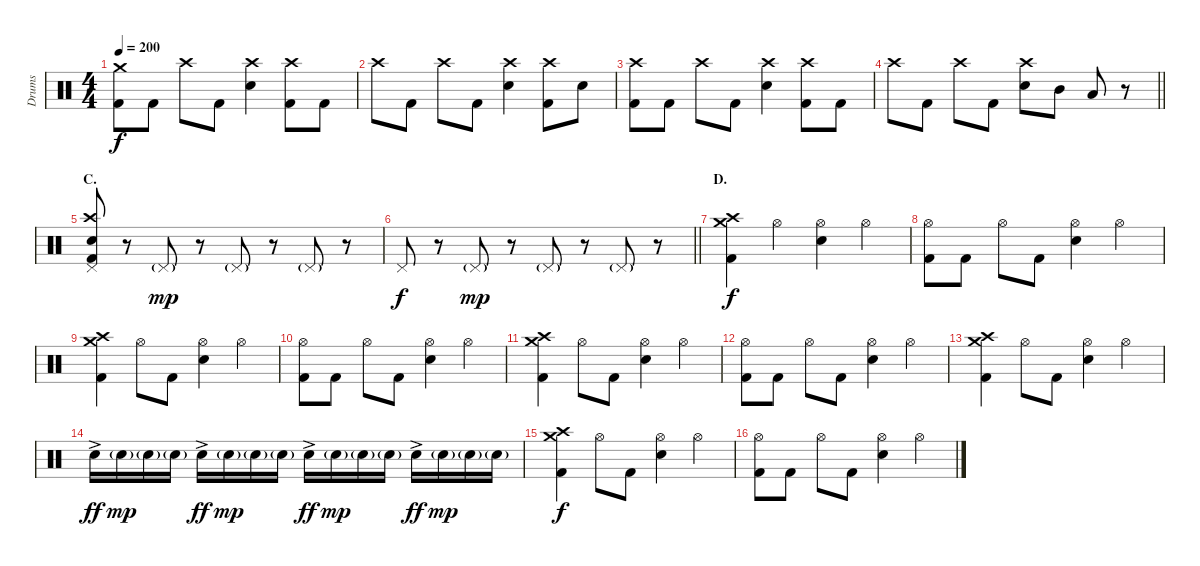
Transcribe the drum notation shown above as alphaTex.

\track ("Drums" "Drums") {instrument percussion}
\staff {score}
\articulation defaults
\ts (4 4)
\tempo 200
\clef neutral
\ks c
("Crash medium (hit)" "Kick (hit) 2").8{dy f} "Kick (hit) 2".8 "Crash high (hit)".8 "Kick (hit) 2".8 ("Crash high (hit)" "Electric Snare (hit)").4 ("Crash high (hit)" "Kick (hit) 2").8 "Kick (hit) 2".8 |
"Crash high (hit)".8 "Kick (hit) 2".8 "Crash high (hit)".8 "Kick (hit) 2".8 ("Crash high (hit)" "Electric Snare (hit)").4 ("Crash high (hit)" "Kick (hit) 2").8 "Electric Snare (hit)".8 |
("Crash high (hit)" "Kick (hit) 2").8 "Kick (hit) 2".8 "Crash high (hit)".8 "Kick (hit) 2".8 ("Crash high (hit)" "Electric Snare (hit)").4 ("Crash high (hit)" "Kick (hit) 2").8 "Kick (hit) 2".8 |
\barLineRight lightlight "Crash high (hit)".8 "Kick (hit) 2".8 "Crash high (hit)".8 "Kick (hit) 2".8
("Crash high (hit)" "Electric Snare (hit)").8 "Mid Tom (hit)".8 "Low Tom (hit)".8 r.8 |
\section ("" "C.")
("Crash high (hit)" "Pedal Hi-Hat (hit)" "Electric Snare (hit)" "Kick (hit) 2").8 r.8 "Pedal Hi-Hat (hit)"{g}.8{dy mp} r.8 "Pedal Hi-Hat (hit)"{g}.8 r.8 "Pedal Hi-Hat (hit)"{g}.8 r.8 |
\barLineRight lightlight "Pedal Hi-Hat (hit)".8{dy f}
r.8 "Pedal Hi-Hat (hit)"{g}.8{dy mp} r.8 "Pedal Hi-Hat (hit)"{g}.8 r.8 "Pedal Hi-Hat (hit)"{g}.8 r.8 |
\section ("" "D.")
("Crash medium (hit)" "Crash high (hit)" "Kick (hit) 2").4{dy f} "Hi-Hat (open)".4 ("Hi-Hat (open)" "Electric Snare (hit)").4 "Hi-Hat (open)".4 |
("Hi-Hat (open)" "Kick (hit) 2").8 "Kick (hit) 2".8 "Hi-Hat (open)".8 "Kick (hit) 2".8 ("Hi-Hat (open)" "Electric Snare (hit)").4 "Hi-Hat (open)".4 |
("Crash medium (hit)" "Crash high (hit)" "Kick (hit) 2").4 "Hi-Hat (open)".8 "Kick (hit) 2".8 ("Hi-Hat (open)" "Electric Snare (hit)").4 "Hi-Hat (open)".4 |
("Hi-Hat (open)" "Kick (hit) 2").8 "Kick (hit) 2".8 "Hi-Hat (open)".8 "Kick (hit) 2".8 ("Hi-Hat (open)" "Electric Snare (hit)").4 "Hi-Hat (open)".4 |
("Crash medium (hit)" "Crash high (hit)" "Kick (hit) 2").4 "Hi-Hat (open)".8 "Kick (hit) 2".8 ("Hi-Hat (open)" "Electric Snare (hit)").4 "Hi-Hat (open)".4 |
("Hi-Hat (open)" "Kick (hit) 2").8 "Kick (hit) 2".8 "Hi-Hat (open)".8 "Kick (hit) 2".8 ("Hi-Hat (open)" "Electric Snare (hit)").4 "Hi-Hat (open)".4 |
("Crash medium (hit)" "Crash high (hit)" "Kick (hit) 2").4 "Hi-Hat (open)".8 "Kick (hit) 2".8 ("Hi-Hat (open)" "Electric Snare (hit)").4 "Hi-Hat (open)".4 |
"Electric Snare (hit)"{ac}.16{dy ff} "Electric Snare (hit)"{g}.16{dy mp} "Electric Snare (hit)"{g}.16 "Electric Snare (hit)"{g}.16 "Electric Snare (hit)"{ac}.16{dy ff} "Electric Snare (hit)"{g}.16{dy mp} "Electric Snare (hit)"{g}.16 "Electric Snare (hit)"{g}.16 "Electric Snare (hit)"{ac}.16{dy ff} "Electric Snare (hit)"{g}.16{dy mp} "Electric Snare (hit)"{g}.16 "Electric Snare (hit)"{g}.16 "Electric Snare (hit)"{ac}.16{dy ff} "Electric Snare (hit)"{g}.16{dy mp} "Electric Snare (hit)"{g}.16 "Electric Snare (hit)"{g}.16 |
("Crash medium (hit)" "Crash high (hit)" "Kick (hit) 2").4{dy f} "Hi-Hat (open)".8 "Kick (hit) 2".8 ("Hi-Hat (open)" "Electric Snare (hit)").4 "Hi-Hat (open)".4 |
("Hi-Hat (open)" "Kick (hit) 2").8 "Kick (hit) 2".8 "Hi-Hat (open)".8 "Kick (hit) 2".8 ("Hi-Hat (open)" "Electric Snare (hit)").4 "Hi-Hat (open)".4
